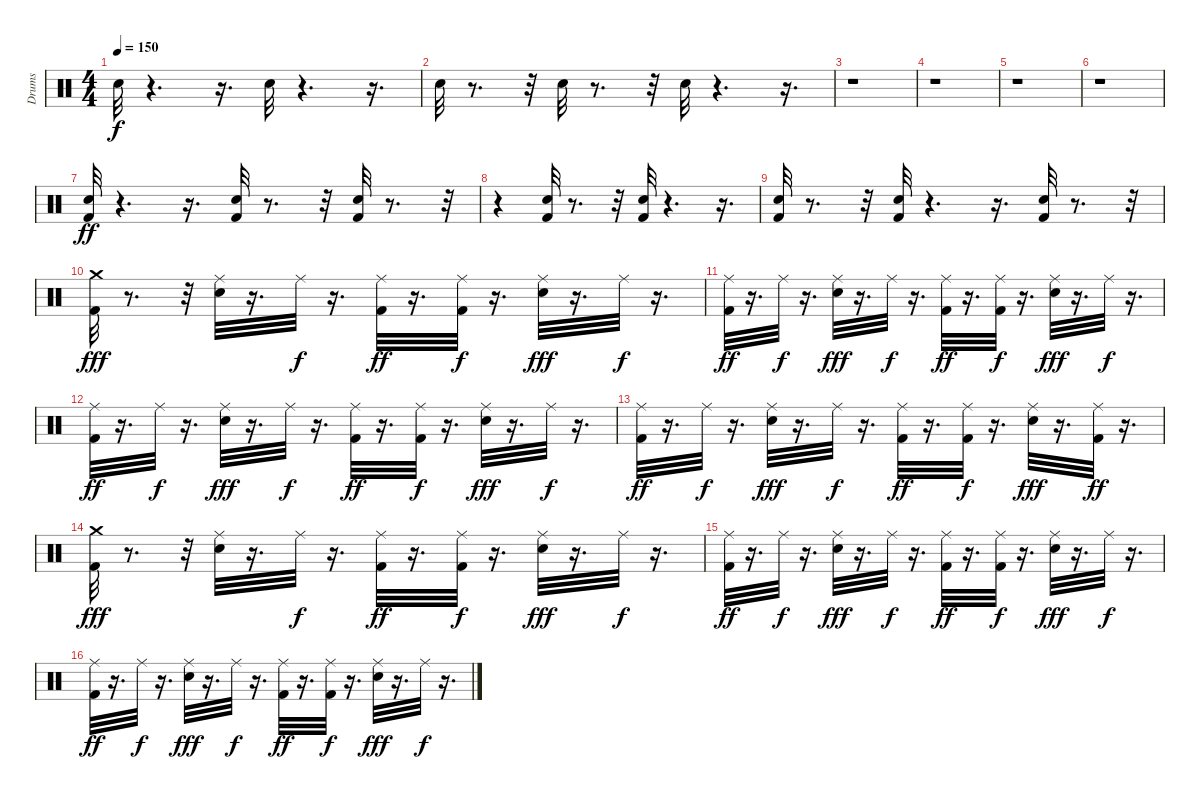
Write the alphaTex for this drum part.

\track ("Drums" "Drums") {instrument percussion}
\staff {score}
\articulation defaults
\ts (4 4)
\tempo 150
\clef neutral
\ks c "Hand Clap (hit)".32{dy f}
r.4{d} r.16{d} "Hand Clap (hit)".32 r.4{d} r.16{d} |
"Hand Clap (hit)".32 r.8{d} r.32 "Hand Clap (hit)".32 r.8{d} r.32 "Hand Clap (hit)".32 r.4{d} r.16{d} |
r.1 |
r.1 |
r.1 |
r.1 |
("Snare (hit) 2" "Kick (hit) 2").32{dy ff} r.4{d} r.16{d} ("Snare (hit) 2" "Kick (hit) 2").32 r.8{d} r.32 ("Snare (hit) 2" "Kick (hit) 2").32 r.8{d} r.32 |
r.4 ("Snare (hit) 2" "Kick (hit) 2").32 r.8{d} r.32 ("Snare (hit) 2" "Kick (hit) 2").32 r.4{d} r.16{d} |
("Snare (hit) 2" "Kick (hit) 2").32 r.8{d} r.32 ("Snare (hit) 2" "Kick (hit) 2").32 r.4{d} r.16{d} ("Snare (hit) 2" "Kick (hit) 2").32 r.8{d} r.32 |
("Kick (hit) 2" "Crash medium (hit)").32{dy fff} r.8{d} r.32 ("Snare (hit) 2" "Ride (middle)").32 r.16{d} "Ride (middle)".32{dy f} r.16{d} ("Kick (hit) 2" "Ride (middle)").32{dy ff} r.16{d} ("Kick (hit) 2" "Ride (middle)").32{dy f} r.16{d} ("Snare (hit) 2" "Ride (middle)").32{dy fff} r.16{d} "Ride (middle)".32{dy f} r.16{d} |
("Kick (hit) 2" "Ride (middle)").32{dy ff} r.16{d} "Ride (middle)".32{dy f} r.16{d} ("Snare (hit) 2" "Ride (middle)").32{dy fff} r.16{d} "Ride (middle)".32{dy f} r.16{d} ("Kick (hit) 2" "Ride (middle)").32{dy ff} r.16{d} ("Kick (hit) 2" "Ride (middle)").32{dy f} r.16{d} ("Snare (hit) 2" "Ride (middle)").32{dy fff} r.16{d} "Ride (middle)".32{dy f} r.16{d} |
("Kick (hit) 2" "Ride (middle)").32{dy ff} r.16{d} "Ride (middle)".32{dy f} r.16{d} ("Snare (hit) 2" "Ride (middle)").32{dy fff} r.16{d} "Ride (middle)".32{dy f} r.16{d} ("Kick (hit) 2" "Ride (middle)").32{dy ff} r.16{d} ("Kick (hit) 2" "Ride (middle)").32{dy f} r.16{d} ("Snare (hit) 2" "Ride (middle)").32{dy fff} r.16{d} "Ride (middle)".32{dy f} r.16{d} |
("Kick (hit) 2" "Ride (middle)").32{dy ff} r.16{d} "Ride (middle)".32{dy f} r.16{d} ("Snare (hit) 2" "Ride (middle)").32{dy fff} r.16{d} "Ride (middle)".32{dy f} r.16{d} ("Kick (hit) 2" "Ride (middle)").32{dy ff} r.16{d} ("Kick (hit) 2" "Ride (middle)").32{dy f} r.16{d} ("Snare (hit) 2" "Ride (middle)").32{dy fff} r.16{d} ("Kick (hit) 2" "Ride (middle)").32{dy ff} r.16{d} |
("Kick (hit) 2" "Crash medium (hit)").32{dy fff} r.8{d} r.32 ("Snare (hit) 2" "Ride (middle)").32 r.16{d} "Ride (middle)".32{dy f} r.16{d} ("Kick (hit) 2" "Ride (middle)").32{dy ff} r.16{d} ("Kick (hit) 2" "Ride (middle)").32{dy f} r.16{d} ("Snare (hit) 2" "Ride (middle)").32{dy fff} r.16{d} "Ride (middle)".32{dy f} r.16{d} |
("Kick (hit) 2" "Ride (middle)").32{dy ff} r.16{d} "Ride (middle)".32{dy f} r.16{d} ("Snare (hit) 2" "Ride (middle)").32{dy fff} r.16{d} "Ride (middle)".32{dy f} r.16{d} ("Kick (hit) 2" "Ride (middle)").32{dy ff} r.16{d} ("Kick (hit) 2" "Ride (middle)").32{dy f} r.16{d} ("Snare (hit) 2" "Ride (middle)").32{dy fff} r.16{d} "Ride (middle)".32{dy f} r.16{d} |
("Kick (hit) 2" "Ride (middle)").32{dy ff} r.16{d} "Ride (middle)".32{dy f} r.16{d} ("Snare (hit) 2" "Ride (middle)").32{dy fff} r.16{d} "Ride (middle)".32{dy f} r.16{d} ("Kick (hit) 2" "Ride (middle)").32{dy ff} r.16{d} ("Kick (hit) 2" "Ride (middle)").32{dy f} r.16{d} ("Snare (hit) 2" "Ride (middle)").32{dy fff} r.16{d} "Ride (middle)".32{dy f} r.16{d}
